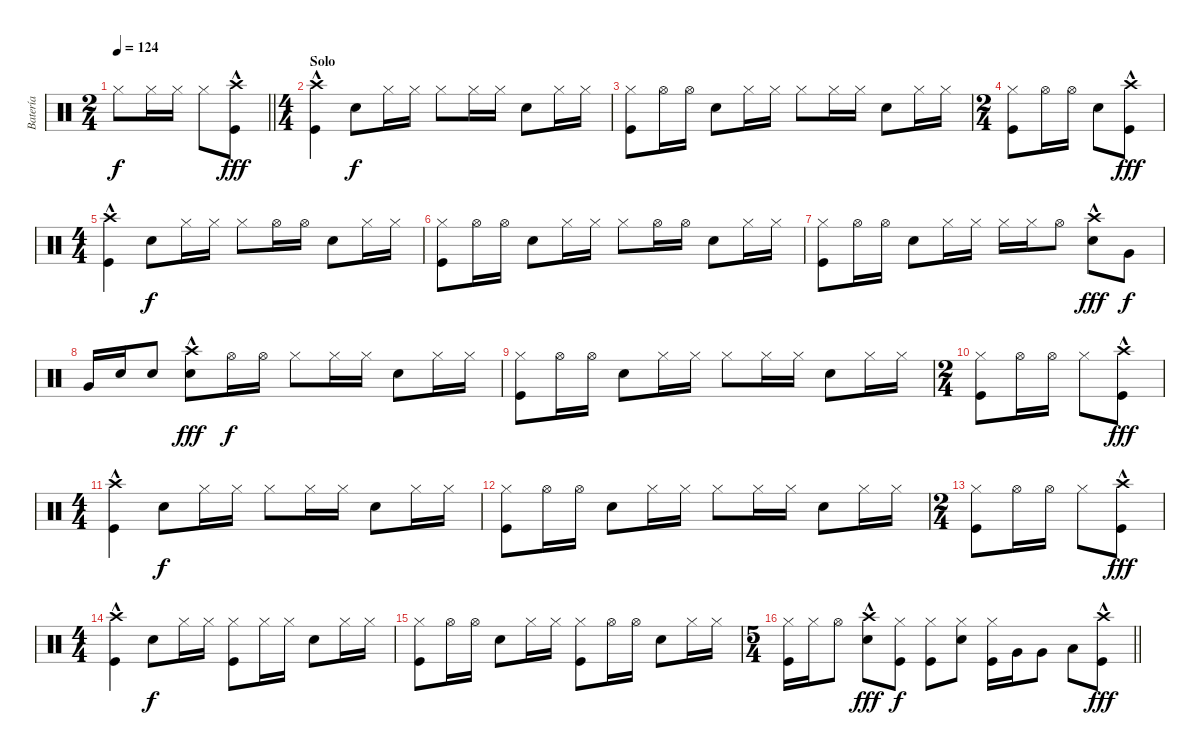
\track ("Batería" "Batería") {instrument percussion}
\staff {score}
\articulation defaults
\ts (2 4)
\tempo 124
\clef neutral
\barLineRight lightlight
\ks c "Hi-Hat (closed)".8{dy f} "Hi-Hat (closed)".16 "Hi-Hat (closed)".16 "Hi-Hat (closed)".8
("Crash high (hit)" "Kick (hit)"{hac}).8{dy fff} |
\ts (4 4)
\section ("" "Solo")
("Kick (hit)" "Crash high (hit)"{hac}).4 "Snare (hit) 2".8{dy f} "Hi-Hat (closed)".16 "Hi-Hat (closed)".16 "Hi-Hat (closed)".8 "Hi-Hat (closed)".16 "Hi-Hat (closed)".16 "Snare (hit) 2".8 "Hi-Hat (closed)".16 "Hi-Hat (closed)".16 |
("Kick (hit)" "Hi-Hat (closed)").8 "Hi-Hat (open)".16 "Hi-Hat (open)".16 "Snare (hit) 2".8 "Hi-Hat (closed)".16 "Hi-Hat (closed)".16 "Hi-Hat (closed)".8 "Hi-Hat (closed)".16 "Hi-Hat (closed)".16 "Snare (hit) 2".8 "Hi-Hat (closed)".16 "Hi-Hat (closed)".16 |
\ts (2 4)
("Kick (hit)" "Hi-Hat (closed)").8 "Hi-Hat (open)".16 "Hi-Hat (open)".16 "Snare (hit) 2".8 ("Kick (hit)" "Crash high (hit)"{hac}).8{dy fff} |
\ts (4 4)
("Kick (hit)" "Crash high (hit)"{hac}).4 "Snare (hit) 2".8{dy f} "Hi-Hat (closed)".16 "Hi-Hat (closed)".16 "Hi-Hat (closed)".8 "Hi-Hat (open)".16 "Hi-Hat (open)".16 "Snare (hit) 2".8 "Hi-Hat (closed)".16 "Hi-Hat (closed)".16 |
("Kick (hit)" "Hi-Hat (closed)").8 "Hi-Hat (open)".16 "Hi-Hat (open)".16 "Snare (hit) 2".8 "Hi-Hat (closed)".16 "Hi-Hat (closed)".16 "Hi-Hat (closed)".8 "Hi-Hat (open)".16 "Hi-Hat (open)".16 "Snare (hit) 2".8 "Hi-Hat (closed)".16 "Hi-Hat (closed)".16 |
("Kick (hit)" "Hi-Hat (closed)").8 "Hi-Hat (open)".16 "Hi-Hat (open)".16 "Snare (hit) 2".8 "Hi-Hat (closed)".16 "Hi-Hat (closed)".16 "Hi-Hat (closed)".16 "Hi-Hat (closed)".16 "Hi-Hat (open)".8 ("Crash high (hit)" "Snare (hit) 2"{hac}).8{dy fff} "Very Low Tom (hit)".8{dy f} |
"Very Low Tom (hit)".16 "Snare (hit) 2".16 "Snare (hit) 2".8 ("Snare (hit) 2" "Crash high (hit)"{hac}).8{dy fff} "Hi-Hat (open)".16{dy f} "Hi-Hat (open)".16 "Hi-Hat (closed)".8 "Hi-Hat (closed)".16 "Hi-Hat (closed)".16 "Snare (hit) 2".8 "Hi-Hat (closed)".16 "Hi-Hat (closed)".16 |
("Hi-Hat (closed)" "Kick (hit)").8 "Hi-Hat (open)".16 "Hi-Hat (open)".16 "Snare (hit) 2".8 "Hi-Hat (closed)".16 "Hi-Hat (closed)".16 "Hi-Hat (closed)".8 "Hi-Hat (closed)".16 "Hi-Hat (closed)".16 "Snare (hit) 2".8 "Hi-Hat (closed)".16 "Hi-Hat (closed)".16 |
\ts (2 4)
("Kick (hit)" "Hi-Hat (closed)").8 "Hi-Hat (open)".16 "Hi-Hat (open)".16 "Hi-Hat (closed)".8 ("Kick (hit)" "Crash high (hit)"{hac}).8{dy fff} |
\ts (4 4)
("Crash high (hit)"{hac} "Kick (hit)").4 "Snare (hit) 2".8{dy f} "Hi-Hat (closed)".16 "Hi-Hat (closed)".16 "Hi-Hat (closed)".8 "Hi-Hat (closed)".16 "Hi-Hat (closed)".16 "Snare (hit) 2".8 "Hi-Hat (closed)".16 "Hi-Hat (closed)".16 |
("Hi-Hat (closed)" "Kick (hit)").8 "Hi-Hat (open)".16 "Hi-Hat (open)".16 "Snare (hit) 2".8 "Hi-Hat (closed)".16 "Hi-Hat (closed)".16 "Hi-Hat (closed)".8 "Hi-Hat (closed)".16 "Hi-Hat (closed)".16 "Snare (hit) 2".8 "Hi-Hat (closed)".16 "Hi-Hat (closed)".16 |
\ts (2 4)
("Kick (hit)" "Hi-Hat (closed)").8 "Hi-Hat (open)".16 "Hi-Hat (open)".16 "Hi-Hat (closed)".8 ("Kick (hit)" "Crash high (hit)"{hac}).8{dy fff} |
\ts (4 4)
("Crash high (hit)"{hac} "Kick (hit)").4 "Snare (hit) 2".8{dy f} "Hi-Hat (closed)".16 "Hi-Hat (closed)".16 ("Hi-Hat (closed)" "Kick (hit)").8 "Hi-Hat (closed)".16 "Hi-Hat (closed)".16 "Snare (hit) 2".8 "Hi-Hat (closed)".16 "Hi-Hat (closed)".16 |
("Hi-Hat (closed)" "Kick (hit)").8 "Hi-Hat (open)".16 "Hi-Hat (open)".16 "Snare (hit) 2".8 "Hi-Hat (closed)".16 "Hi-Hat (closed)".16 ("Hi-Hat (closed)" "Kick (hit)").8 "Hi-Hat (open)".16 "Hi-Hat (open)".16 "Snare (hit) 2".8 "Hi-Hat (closed)".16 "Hi-Hat (closed)".16 |
\ts (5 4)
\barLineRight lightlight
("Hi-Hat (closed)" "Kick (hit)").16 "Hi-Hat (closed)".16 "Hi-Hat (open)".8 ("Crash high (hit)" "Snare (hit) 2"{hac}).8{dy fff} ("Kick (hit)" "Hi-Hat (closed)").8{dy f} ("Kick (hit)" "Hi-Hat (closed)").8 ("Hi-Hat (closed)" "Snare (hit) 2").8 ("Hi-Hat (closed)" "Kick (hit)").16 "Very Low Tom (hit)".16 "Very Low Tom (hit)".8 "Low Tom (hit)".8 ("Kick (hit)" "Crash high (hit)"{hac}).8{dy fff}
